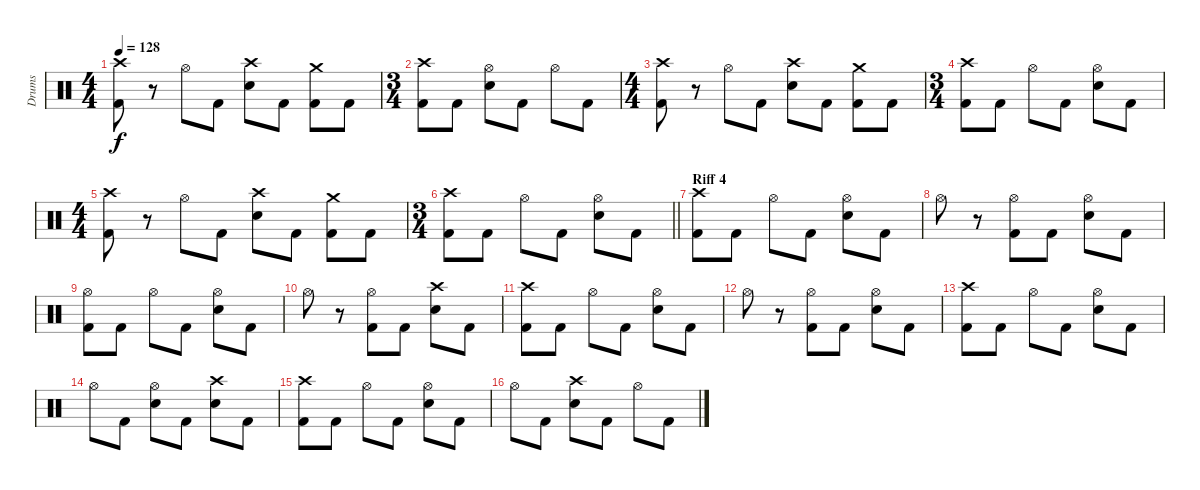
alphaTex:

\track ("Drums" "Drums") {instrument percussion}
\staff {score}
\articulation defaults
\ts (4 4)
\tempo 128
\clef neutral
\ks c
("Crash high (hit)" "Kick (hit) 2").8{dy f} r.8 "Hi-Hat (open)".8 "Kick (hit) 2".8 ("Crash high (hit)" "Electric Snare (hit)").8 "Kick (hit) 2".8 ("Crash medium (hit)" "Kick (hit) 2").8 "Kick (hit) 2".8 |
\ts (3 4)
("Crash high (hit)" "Kick (hit) 2").8 "Kick (hit) 2".8 ("Hi-Hat (open)" "Electric Snare (hit)").8 "Kick (hit) 2".8 "Hi-Hat (open)".8 "Kick (hit) 2".8 |
\ts (4 4)
("Crash high (hit)" "Kick (hit) 2").8 r.8 "Hi-Hat (open)".8 "Kick (hit) 2".8 ("Crash high (hit)" "Electric Snare (hit)").8 "Kick (hit) 2".8 ("Crash medium (hit)" "Kick (hit) 2").8 "Kick (hit) 2".8 |
\ts (3 4)
("Crash high (hit)" "Kick (hit) 2").8 "Kick (hit) 2".8 "Hi-Hat (open)".8 "Kick (hit) 2".8 ("Hi-Hat (open)" "Electric Snare (hit)").8 "Kick (hit) 2".8 |
\ts (4 4)
("Crash high (hit)" "Kick (hit) 2").8 r.8 "Hi-Hat (open)".8 "Kick (hit) 2".8 ("Crash high (hit)" "Electric Snare (hit)").8 "Kick (hit) 2".8 ("Crash medium (hit)" "Kick (hit) 2").8 "Kick (hit) 2".8 |
\ts (3 4)
\barLineRight lightlight
("Crash high (hit)" "Kick (hit) 2").8 "Kick (hit) 2".8 "Hi-Hat (open)".8 "Kick (hit) 2".8 ("Hi-Hat (open)" "Electric Snare (hit)").8 "Kick (hit) 2".8 |
\section ("" "Riff 4")
("Crash high (hit)" "Kick (hit) 2").8 "Kick (hit) 2".8 "Hi-Hat (open)".8 "Kick (hit) 2".8 ("Hi-Hat (open)" "Electric Snare (hit)").8 "Kick (hit) 2".8 |
"Hi-Hat (open)".8 r.8 ("Hi-Hat (open)" "Kick (hit) 2").8 "Kick (hit) 2".8 ("Hi-Hat (open)" "Electric Snare (hit)").8 "Kick (hit) 2".8 |
("Hi-Hat (open)" "Kick (hit) 2").8 "Kick (hit) 2".8 "Hi-Hat (open)".8 "Kick (hit) 2".8 ("Hi-Hat (open)" "Electric Snare (hit)").8 "Kick (hit) 2".8 |
"Hi-Hat (open)".8 r.8 ("Hi-Hat (open)" "Kick (hit) 2").8 "Kick (hit) 2".8 ("Crash high (hit)" "Electric Snare (hit)").8 "Kick (hit) 2".8 |
("Crash high (hit)" "Kick (hit) 2").8 "Kick (hit) 2".8 "Hi-Hat (open)".8 "Kick (hit) 2".8 ("Hi-Hat (open)" "Electric Snare (hit)").8 "Kick (hit) 2".8 |
"Hi-Hat (open)".8 r.8 ("Hi-Hat (open)" "Kick (hit) 2").8 "Kick (hit) 2".8 ("Hi-Hat (open)" "Electric Snare (hit)").8 "Kick (hit) 2".8 |
("Crash high (hit)" "Kick (hit) 2").8 "Kick (hit) 2".8 "Hi-Hat (open)".8 "Kick (hit) 2".8 ("Hi-Hat (open)" "Electric Snare (hit)").8 "Kick (hit) 2".8 |
"Hi-Hat (open)".8 "Kick (hit) 2".8 ("Hi-Hat (open)" "Electric Snare (hit)").8 "Kick (hit) 2".8 ("Crash high (hit)" "Electric Snare (hit)").8 "Kick (hit) 2".8 |
("Crash high (hit)" "Kick (hit) 2").8 "Kick (hit) 2".8 "Hi-Hat (open)".8 "Kick (hit) 2".8 ("Hi-Hat (open)" "Electric Snare (hit)").8 "Kick (hit) 2".8 |
"Hi-Hat (open)".8 "Kick (hit) 2".8 ("Crash high (hit)" "Electric Snare (hit)").8 "Kick (hit) 2".8 "Hi-Hat (open)".8 "Kick (hit) 2".8
